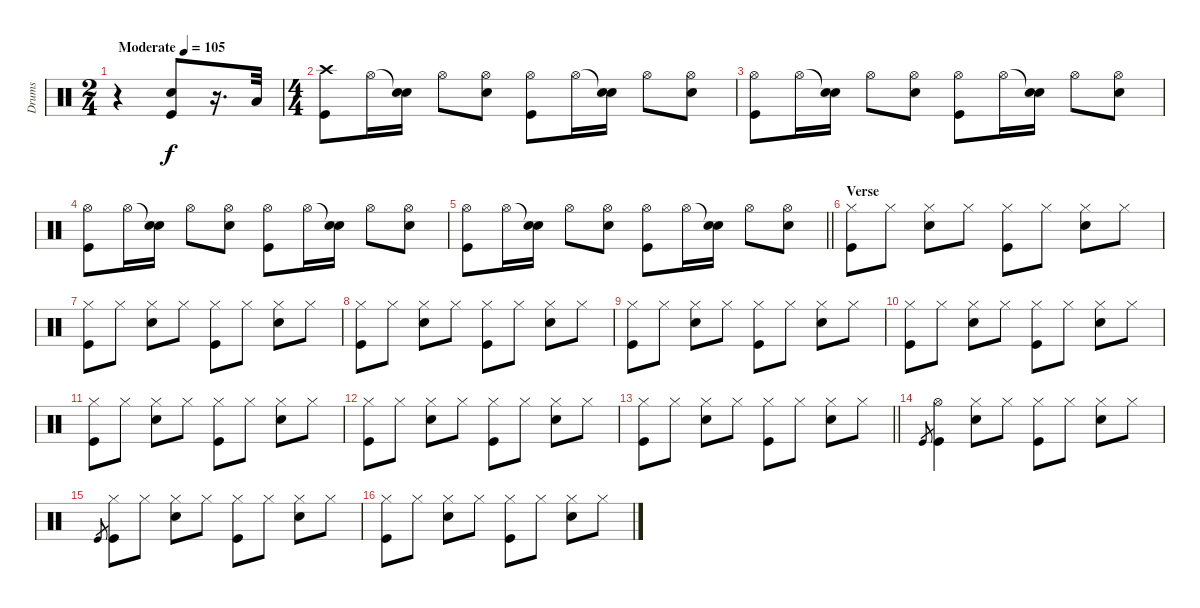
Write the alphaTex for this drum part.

\track ("Drums" "Drums") {instrument percussion}
\staff {score}
\articulation defaults
\ts (2 4)
\tempo (105 "Moderate")
\clef neutral
\ks c
r.4{dy f} ("Electric Snare (hit)" "Kick (hit)").8 r.16{d} "Low Tom (hit)".32 |
\ts (4 4)
("Crash high (hit)" "Kick (hit)").8 "Hi-Hat (open)".16 ("Snare (hit)"{t} "Electric Snare (hit)").16 "Hi-Hat (open)".8 ("Hi-Hat (open)" "Electric Snare (hit)").8 ("Hi-Hat (open)" "Kick (hit)").8 "Hi-Hat (open)".16 ("Snare (hit)"{t} "Electric Snare (hit)").16 "Hi-Hat (open)".8 ("Hi-Hat (open)" "Electric Snare (hit)").8 |
("Hi-Hat (open)" "Kick (hit)").8 "Hi-Hat (open)".16 ("Snare (hit)"{t} "Electric Snare (hit)").16 "Hi-Hat (open)".8 ("Hi-Hat (open)" "Electric Snare (hit)").8 ("Hi-Hat (open)" "Kick (hit)").8 "Hi-Hat (open)".16 ("Snare (hit)"{t} "Electric Snare (hit)").16 "Hi-Hat (open)".8 ("Hi-Hat (open)" "Electric Snare (hit)").8 |
("Hi-Hat (open)" "Kick (hit)").8 "Hi-Hat (open)".16 ("Snare (hit)"{t} "Electric Snare (hit)").16 "Hi-Hat (open)".8 ("Hi-Hat (open)" "Electric Snare (hit)").8 ("Hi-Hat (open)" "Kick (hit)").8 "Hi-Hat (open)".16 ("Snare (hit)"{t} "Electric Snare (hit)").16 "Hi-Hat (open)".8 ("Hi-Hat (open)" "Electric Snare (hit)").8 |
\barLineRight lightlight
("Hi-Hat (open)" "Kick (hit)").8 "Hi-Hat (open)".16 ("Snare (hit)"{t} "Electric Snare (hit)").16 "Hi-Hat (open)".8 ("Hi-Hat (open)" "Electric Snare (hit)").8 ("Hi-Hat (open)" "Kick (hit)").8 "Hi-Hat (open)".16 ("Snare (hit)"{t} "Electric Snare (hit)").16 "Hi-Hat (open)".8 ("Hi-Hat (open)" "Electric Snare (hit)").8 |
\section ("" "Verse")
("Hi-Hat (closed)" "Kick (hit)").8 "Hi-Hat (closed)".8 ("Hi-Hat (closed)" "Electric Snare (hit)").8 "Hi-Hat (closed)".8 ("Hi-Hat (closed)" "Kick (hit)").8 "Hi-Hat (closed)".8 ("Hi-Hat (closed)" "Electric Snare (hit)").8 "Hi-Hat (closed)".8 |
("Hi-Hat (closed)" "Kick (hit)").8 "Hi-Hat (closed)".8 ("Hi-Hat (closed)" "Electric Snare (hit)").8 "Hi-Hat (closed)".8 ("Hi-Hat (closed)" "Kick (hit)").8 "Hi-Hat (closed)".8 ("Hi-Hat (closed)" "Electric Snare (hit)").8 "Hi-Hat (closed)".8 |
("Hi-Hat (closed)" "Kick (hit)").8 "Hi-Hat (closed)".8 ("Hi-Hat (closed)" "Electric Snare (hit)").8 "Hi-Hat (closed)".8 ("Hi-Hat (closed)" "Kick (hit)").8 "Hi-Hat (closed)".8 ("Hi-Hat (closed)" "Electric Snare (hit)").8 "Hi-Hat (closed)".8 |
("Hi-Hat (closed)" "Kick (hit)").8 "Hi-Hat (closed)".8 ("Hi-Hat (closed)" "Electric Snare (hit)").8 "Hi-Hat (closed)".8 ("Hi-Hat (closed)" "Kick (hit)").8 "Hi-Hat (closed)".8 ("Hi-Hat (closed)" "Electric Snare (hit)").8 "Hi-Hat (closed)".8 |
("Hi-Hat (closed)" "Kick (hit)").8 "Hi-Hat (closed)".8 ("Hi-Hat (closed)" "Electric Snare (hit)").8 "Hi-Hat (closed)".8 ("Hi-Hat (closed)" "Kick (hit)").8 "Hi-Hat (closed)".8 ("Hi-Hat (closed)" "Electric Snare (hit)").8 "Hi-Hat (closed)".8 |
("Hi-Hat (closed)" "Kick (hit)").8 "Hi-Hat (closed)".8 ("Hi-Hat (closed)" "Electric Snare (hit)").8 "Hi-Hat (closed)".8 ("Hi-Hat (closed)" "Kick (hit)").8 "Hi-Hat (closed)".8 ("Hi-Hat (closed)" "Electric Snare (hit)").8 "Hi-Hat (closed)".8 |
("Hi-Hat (closed)" "Kick (hit)").8 "Hi-Hat (closed)".8 ("Hi-Hat (closed)" "Electric Snare (hit)").8 "Hi-Hat (closed)".8 ("Hi-Hat (closed)" "Kick (hit)").8 "Hi-Hat (closed)".8 ("Hi-Hat (closed)" "Electric Snare (hit)").8 "Hi-Hat (closed)".8 |
\barLineRight lightlight
("Hi-Hat (closed)" "Kick (hit)").8 "Hi-Hat (closed)".8 ("Hi-Hat (closed)" "Electric Snare (hit)").8 "Hi-Hat (closed)".8 ("Hi-Hat (closed)" "Kick (hit)").8 "Hi-Hat (closed)".8 ("Hi-Hat (closed)" "Electric Snare (hit)").8 "Hi-Hat (closed)".8 |
"Kick (hit)".8{gr} ("Hi-Hat (open)" "Kick (hit)").4 ("Hi-Hat (closed)" "Electric Snare (hit)").8 "Hi-Hat (closed)".8 ("Hi-Hat (closed)" "Kick (hit)").8 "Hi-Hat (closed)".8 ("Hi-Hat (closed)" "Electric Snare (hit)").8 "Hi-Hat (closed)".8 |
"Kick (hit)".8{gr} ("Hi-Hat (closed)" "Kick (hit)").8 "Hi-Hat (closed)".8 ("Hi-Hat (closed)" "Electric Snare (hit)").8 "Hi-Hat (closed)".8 ("Hi-Hat (closed)" "Kick (hit)").8 "Hi-Hat (closed)".8 ("Hi-Hat (closed)" "Electric Snare (hit)").8 "Hi-Hat (closed)".8 |
("Hi-Hat (closed)" "Kick (hit)").8 "Hi-Hat (closed)".8 ("Hi-Hat (closed)" "Electric Snare (hit)").8 "Hi-Hat (closed)".8 ("Hi-Hat (closed)" "Kick (hit)").8 "Hi-Hat (closed)".8 ("Hi-Hat (closed)" "Electric Snare (hit)").8 "Hi-Hat (closed)".8
